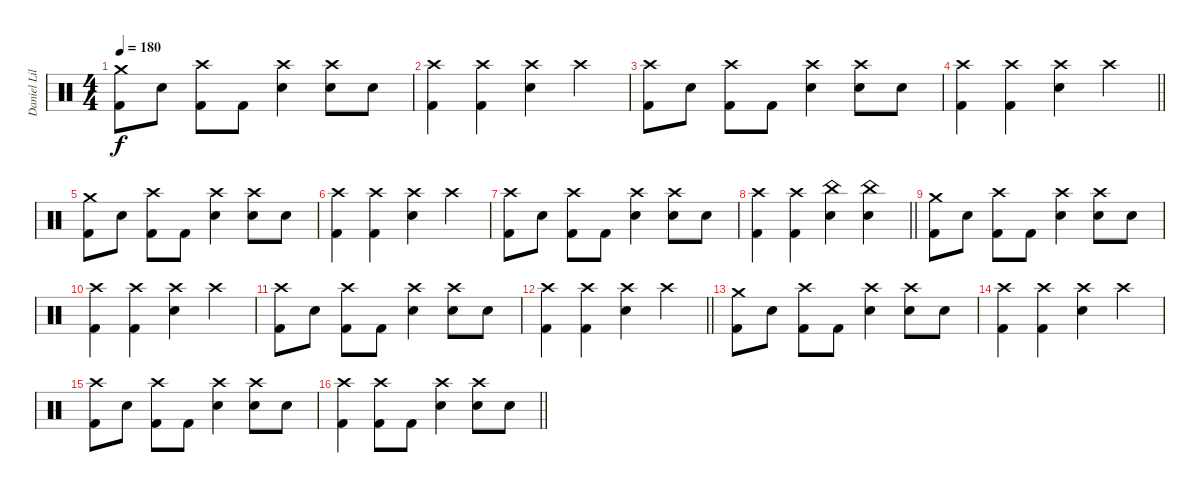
\track ("Daniel Liljekvist" "Daniel Lil") {instrument percussion}
\staff {score}
\articulation defaults
\ts (4 4)
\section ("" "")
\tempo 180
\clef neutral
\ks c
("Crash medium (hit)" "Kick (hit) 2").8{dy f} "Electric Snare (hit)".8 ("Crash high (hit)" "Kick (hit) 2").8 "Kick (hit) 2".8 ("Crash high (hit)" "Electric Snare (hit)").4 ("Crash high (hit)" "Electric Snare (hit)").8 "Electric Snare (hit)".8 |
("Crash high (hit)" "Kick (hit) 2").4 ("Crash high (hit)" "Kick (hit) 2").4 ("Crash high (hit)" "Electric Snare (hit)").4 "Crash high (hit)".4 |
("Crash high (hit)" "Kick (hit) 2").8 "Electric Snare (hit)".8 ("Crash high (hit)" "Kick (hit) 2").8 "Kick (hit) 2".8 ("Crash high (hit)" "Electric Snare (hit)").4 ("Crash high (hit)" "Electric Snare (hit)").8 "Electric Snare (hit)".8 |
\barLineRight lightlight
("Crash high (hit)" "Kick (hit) 2").4 ("Crash high (hit)" "Kick (hit) 2").4 ("Crash high (hit)" "Electric Snare (hit)").4 "Crash high (hit)".4 |
("Crash medium (hit)" "Kick (hit) 2").8 "Electric Snare (hit)".8 ("Crash high (hit)" "Kick (hit) 2").8 "Kick (hit) 2".8 ("Crash high (hit)" "Electric Snare (hit)").4 ("Crash high (hit)" "Electric Snare (hit)").8 "Electric Snare (hit)".8 |
("Crash high (hit)" "Kick (hit) 2").4 ("Crash high (hit)" "Kick (hit) 2").4 ("Crash high (hit)" "Electric Snare (hit)").4 "Crash high (hit)".4 |
("Crash high (hit)" "Kick (hit) 2").8 "Electric Snare (hit)".8 ("Crash high (hit)" "Kick (hit) 2").8 "Kick (hit) 2".8 ("Crash high (hit)" "Electric Snare (hit)").4 ("Crash high (hit)" "Electric Snare (hit)").8 "Electric Snare (hit)".8 |
\barLineRight lightlight
("Crash high (hit)" "Kick (hit) 2").4 ("Crash high (hit)" "Kick (hit) 2").4 ("China (hit)" "Electric Snare (hit)").4 ("China (hit)" "Electric Snare (hit)").4 |
("Crash medium (hit)" "Kick (hit) 2").8 "Electric Snare (hit)".8 ("Crash high (hit)" "Kick (hit) 2").8 "Kick (hit) 2".8 ("Crash high (hit)" "Electric Snare (hit)").4 ("Crash high (hit)" "Electric Snare (hit)").8 "Electric Snare (hit)".8 |
("Crash high (hit)" "Kick (hit) 2").4 ("Crash high (hit)" "Kick (hit) 2").4 ("Crash high (hit)" "Electric Snare (hit)").4 "Crash high (hit)".4 |
("Crash high (hit)" "Kick (hit) 2").8 "Electric Snare (hit)".8 ("Crash high (hit)" "Kick (hit) 2").8 "Kick (hit) 2".8 ("Crash high (hit)" "Electric Snare (hit)").4 ("Crash high (hit)" "Electric Snare (hit)").8 "Electric Snare (hit)".8 |
\barLineRight lightlight
("Crash high (hit)" "Kick (hit) 2").4 ("Crash high (hit)" "Kick (hit) 2").4 ("Crash high (hit)" "Electric Snare (hit)").4 "Crash high (hit)".4 |
("Crash medium (hit)" "Kick (hit) 2").8 "Electric Snare (hit)".8 ("Crash high (hit)" "Kick (hit) 2").8 "Kick (hit) 2".8 ("Crash high (hit)" "Electric Snare (hit)").4 ("Crash high (hit)" "Electric Snare (hit)").8 "Electric Snare (hit)".8 |
("Crash high (hit)" "Kick (hit) 2").4 ("Crash high (hit)" "Kick (hit) 2").4 ("Crash high (hit)" "Electric Snare (hit)").4 "Crash high (hit)".4 |
("Crash high (hit)" "Kick (hit) 2").8 "Electric Snare (hit)".8 ("Crash high (hit)" "Kick (hit) 2").8 "Kick (hit) 2".8 ("Crash high (hit)" "Electric Snare (hit)").4 ("Crash high (hit)" "Electric Snare (hit)").8 "Electric Snare (hit)".8 |
\barLineRight lightlight
("Crash high (hit)" "Kick (hit) 2").4 ("Crash high (hit)" "Kick (hit) 2").8 "Kick (hit) 2".8 ("Crash high (hit)" "Electric Snare (hit)").4 ("Crash high (hit)" "Electric Snare (hit)").8 "Electric Snare (hit)".8
